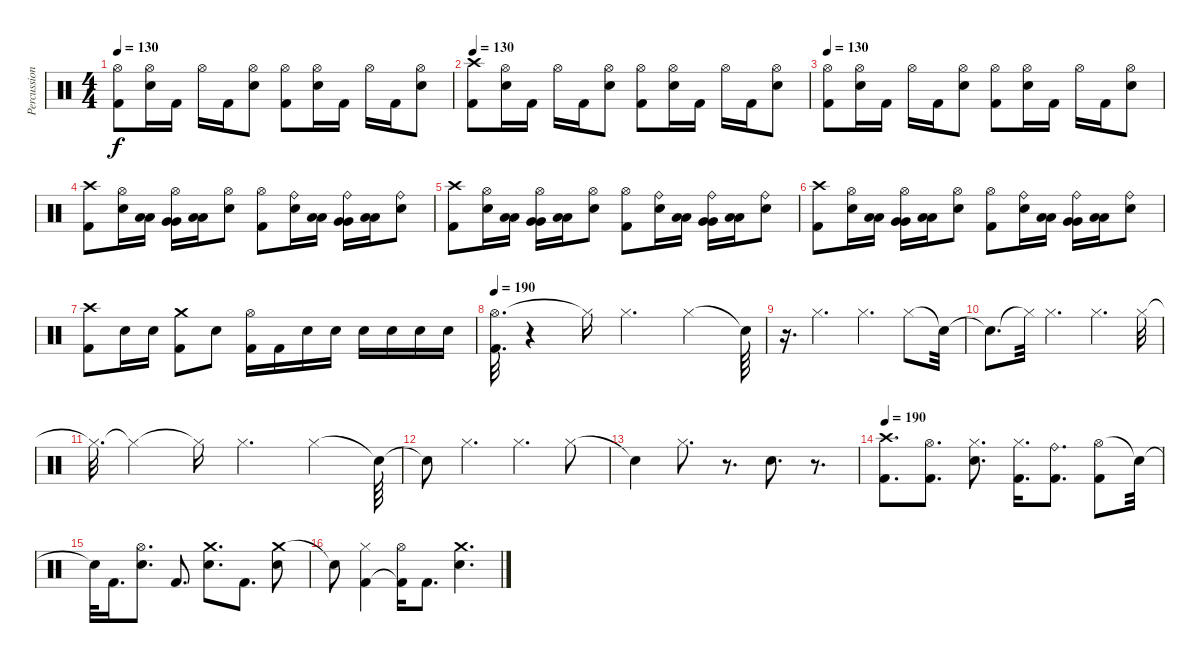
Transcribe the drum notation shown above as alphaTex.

\track ("Percussions" "Percussion") {instrument percussion}
\staff {score}
\articulation defaults
\ts (4 4)
\tempo 130
\clef neutral
\ks c
("Hi-Hat (open)" "Kick (hit) 2").8{dy f} ("Hi-Hat (open)" "Snare (hit) 2").16 "Kick (hit) 2".16 "Hi-Hat (open)".16 "Kick (hit) 2".16 ("Hi-Hat (open)" "Snare (hit) 2").8 ("Hi-Hat (open)" "Kick (hit) 2").8 ("Hi-Hat (open)" "Snare (hit) 2").16 "Kick (hit) 2".16 "Hi-Hat (open)".16 "Kick (hit) 2".16 ("Hi-Hat (open)" "Snare (hit) 2").8 |
\tempo 130
("Crash high (hit)" "Kick (hit) 2").8 ("Hi-Hat (open)" "Snare (hit) 2").16 "Kick (hit) 2".16 "Hi-Hat (open)".16 "Kick (hit) 2".16 ("Hi-Hat (open)" "Snare (hit) 2").8 ("Hi-Hat (open)" "Kick (hit) 2").8 ("Hi-Hat (open)" "Snare (hit) 2").16 "Kick (hit) 2".16 "Hi-Hat (open)".16 "Kick (hit) 2".16 ("Hi-Hat (open)" "Snare (hit) 2").8 |
\tempo 130
("Hi-Hat (open)" "Kick (hit) 2").8 ("Hi-Hat (open)" "Snare (hit) 2").16 "Kick (hit) 2".16 "Hi-Hat (open)".16 "Kick (hit) 2".16 ("Hi-Hat (open)" "Snare (hit) 2").8 ("Hi-Hat (open)" "Kick (hit) 2").8 ("Hi-Hat (open)" "Snare (hit) 2").16 "Kick (hit) 2".16 "Hi-Hat (open)".16 "Kick (hit) 2".16 ("Hi-Hat (open)" "Snare (hit) 2").8 |
("Crash high (hit)" "Kick (hit) 2").8 ("Hi-Hat (open)" "Snare (hit) 2").16 ("Low Tom (hit)" "Low Tom (hit)").16 ("Hi-Hat (open)" "Very Low Tom (hit)" "Very Low Tom (hit)").16 ("Low Floor Tom (hit)" "Low Floor Tom (hit)").16 ("Hi-Hat (open)" "Snare (hit) 2").8 ("Hi-Hat (open)" "Kick (hit) 2").8 ("Ride (bell)" "Snare (hit) 2").16 ("Low Tom (hit)" "Low Tom (hit)").16 ("Ride (bell)" "Very Low Tom (hit)" "Very Low Tom (hit)").16 ("Low Floor Tom (hit)" "Low Floor Tom (hit)").16 ("Ride (bell)" "Snare (hit) 2").8 |
("Crash high (hit)" "Kick (hit) 2").8 ("Hi-Hat (open)" "Snare (hit) 2").16 ("Low Tom (hit)" "Low Tom (hit)").16 ("Hi-Hat (open)" "Very Low Tom (hit)" "Very Low Tom (hit)").16 ("Low Floor Tom (hit)" "Low Floor Tom (hit)").16 ("Hi-Hat (open)" "Snare (hit) 2").8 ("Hi-Hat (open)" "Kick (hit) 2").8 ("Ride (bell)" "Snare (hit) 2").16 ("Low Tom (hit)" "Low Tom (hit)").16 ("Ride (bell)" "Very Low Tom (hit)" "Very Low Tom (hit)").16 ("Low Floor Tom (hit)" "Low Floor Tom (hit)").16 ("Ride (bell)" "Snare (hit) 2").8 |
("Crash high (hit)" "Kick (hit) 2").8 ("Hi-Hat (open)" "Snare (hit) 2").16 ("Low Tom (hit)" "Low Tom (hit)").16 ("Hi-Hat (open)" "Very Low Tom (hit)" "Very Low Tom (hit)").16 ("Low Floor Tom (hit)" "Low Floor Tom (hit)").16 ("Hi-Hat (open)" "Snare (hit) 2").8 ("Hi-Hat (open)" "Kick (hit) 2").8 ("Ride (bell)" "Snare (hit) 2").16 ("Low Tom (hit)" "Low Tom (hit)").16 ("Ride (bell)" "Very Low Tom (hit)" "Very Low Tom (hit)").16 ("Low Floor Tom (hit)" "Low Floor Tom (hit)").16 ("Ride (bell)" "Snare (hit) 2").8 |
("Crash high (hit)" "Kick (hit) 2").8 "Snare (hit) 2".16 "Snare (hit) 2".16 ("Crash medium (hit)" "Kick (hit) 2").8 "Snare (hit) 2".8 ("Hi-Hat (open)" "Kick (hit) 2").16 "Kick (hit) 2".16 "Snare (hit) 2".16 "Snare (hit) 2".16 "Snare (hit) 2".16 "Snare (hit) 2".16 "Snare (hit) 2".16 "Snare (hit) 2".16 |
\tempo 190
("Hi-Hat (open)" "Kick (hit) 2").32{d} r.4 "Hi-Hat (closed)"{t}.16 "Hi-Hat (closed)".4{d} "Hi-Hat (closed)".4 "Snare (hit)"{t}.64 |
r.16{d} "Hi-Hat (closed)".4{d} "Hi-Hat (closed)".4{d} "Hi-Hat (closed)".8 "Snare (hit)"{t}.32 |
"Snare (hit)"{t}.8{d} "Hi-Hat (closed)"{t}.32 "Hi-Hat (closed)".4{d} "Hi-Hat (closed)".4{d} "Hi-Hat (closed)".32 |
"Hi-Hat (closed)"{t}.32{d} "Hi-Hat (closed)"{t}.4 "Hi-Hat (closed)"{t}.16 "Hi-Hat (closed)".4{d} "Hi-Hat (closed)".4 "Snare (hit)"{t}.64 |
"Snare (hit)"{t}.8 "Hi-Hat (closed)".4{d} "Hi-Hat (closed)".4{d} "Hi-Hat (closed)".8 |
"Snare (hit)"{t}.4 "Hi-Hat (closed)".8{d} r.8{d} "Snare (hit) 2".8{d} r.8{d} |
\tempo 190
("Crash high (hit)" "Kick (hit) 2").8{d} ("Hi-Hat (open)" "Kick (hit) 2").8{d} ("Hi-Hat (closed)" "Snare (hit) 2").8{d} ("Hi-Hat (closed)" "Kick (hit) 2").16{d} ("Ride (bell)" "Kick (hit) 2").8{d} ("Hi-Hat (open)" "Kick (hit) 2").8 "Snare (hit)"{t}.32 |
"Snare (hit)"{t}.32 "Kick (hit) 2".16{d} ("Hi-Hat (open)" "Snare (hit) 2").8{d} "Kick (hit) 2".8{d} ("Crash medium (hit)" "Snare (hit) 2").8{d} "Kick (hit) 2".8{d} ("Crash medium (hit)" "Snare (hit) 2").8 |
"Snare (hit)"{t}.8 ("Hi-Hat (closed)" "Kick (hit) 2").4 ("Hi-Hat (open)" "Kick (hit) 2"{t}).16 "Kick (hit) 2".8{d} ("Crash medium (hit)" "Snare (hit) 2").4{d}
